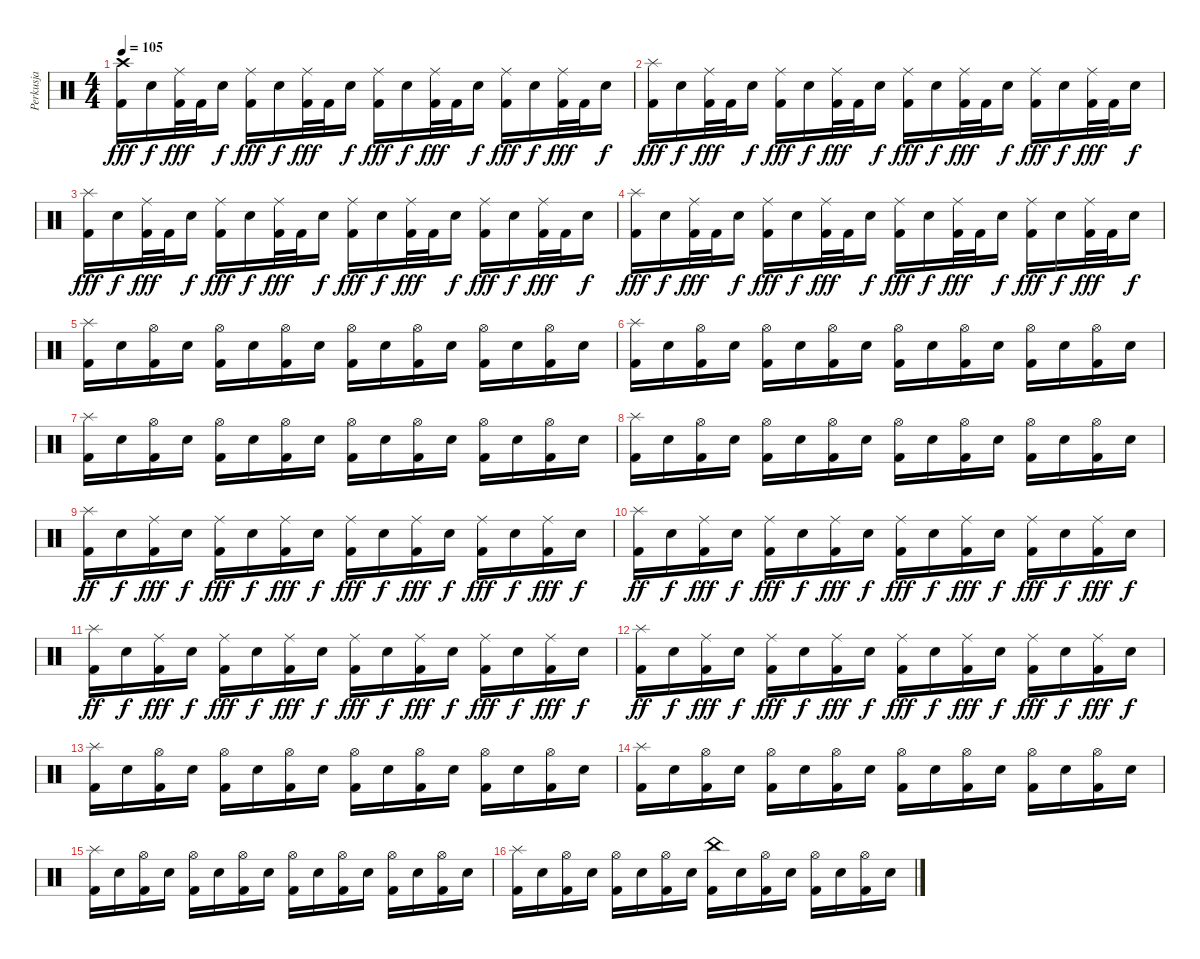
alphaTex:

\track ("Perkusja" "Perkusja") {instrument percussion}
\staff {score}
\articulation defaults
\ts (4 4)
\tempo 105
\clef neutral
\ks c
("Crash high (hit)" "Kick (hit) 2").16{dy fff} "Snare (hit) 2".16{dy f} ("Ride (middle)" "Kick (hit) 2").32{dy fff} "Kick (hit) 2".32 "Snare (hit) 2".16{dy f} ("Ride (middle)" "Kick (hit) 2").16{dy fff} "Snare (hit) 2".16{dy f} ("Ride (middle)" "Kick (hit) 2").32{dy fff} "Kick (hit) 2".32 "Snare (hit) 2".16{dy f} ("Ride (middle)" "Kick (hit) 2").16{dy fff} "Snare (hit) 2".16{dy f} ("Ride (middle)" "Kick (hit) 2").32{dy fff} "Kick (hit) 2".32 "Snare (hit) 2".16{dy f} ("Ride (middle)" "Kick (hit) 2").16{dy fff} "Snare (hit) 2".16{dy f} ("Ride (middle)" "Kick (hit) 2").32{dy fff} "Kick (hit) 2".32 "Snare (hit) 2".16{dy f} |
("Splash (hit)" "Kick (hit) 2").16{dy fff} "Snare (hit) 2".16{dy f} ("Ride (middle)" "Kick (hit) 2").32{dy fff} "Kick (hit) 2".32 "Snare (hit) 2".16{dy f} ("Ride (middle)" "Kick (hit) 2").16{dy fff} "Snare (hit) 2".16{dy f} ("Ride (middle)" "Kick (hit) 2").32{dy fff} "Kick (hit) 2".32 "Snare (hit) 2".16{dy f} ("Ride (middle)" "Kick (hit) 2").16{dy fff} "Snare (hit) 2".16{dy f} ("Ride (middle)" "Kick (hit) 2").32{dy fff} "Kick (hit) 2".32 "Snare (hit) 2".16{dy f} ("Ride (middle)" "Kick (hit) 2").16{dy fff} "Snare (hit) 2".16{dy f} ("Ride (middle)" "Kick (hit) 2").32{dy fff} "Kick (hit) 2".32 "Snare (hit) 2".16{dy f} |
("Splash (hit)" "Kick (hit) 2").16{dy fff} "Snare (hit) 2".16{dy f} ("Ride (middle)" "Kick (hit) 2").32{dy fff} "Kick (hit) 2".32 "Snare (hit) 2".16{dy f} ("Ride (middle)" "Kick (hit) 2").16{dy fff} "Snare (hit) 2".16{dy f} ("Ride (middle)" "Kick (hit) 2").32{dy fff} "Kick (hit) 2".32 "Snare (hit) 2".16{dy f} ("Ride (middle)" "Kick (hit) 2").16{dy fff} "Snare (hit) 2".16{dy f} ("Ride (middle)" "Kick (hit) 2").32{dy fff} "Kick (hit) 2".32 "Snare (hit) 2".16{dy f} ("Ride (middle)" "Kick (hit) 2").16{dy fff} "Snare (hit) 2".16{dy f} ("Ride (middle)" "Kick (hit) 2").32{dy fff} "Kick (hit) 2".32 "Snare (hit) 2".16{dy f} |
("Splash (hit)" "Kick (hit) 2").16{dy fff} "Snare (hit) 2".16{dy f} ("Ride (middle)" "Kick (hit) 2").32{dy fff} "Kick (hit) 2".32 "Snare (hit) 2".16{dy f} ("Ride (middle)" "Kick (hit) 2").16{dy fff} "Snare (hit) 2".16{dy f} ("Ride (middle)" "Kick (hit) 2").32{dy fff} "Kick (hit) 2".32 "Snare (hit) 2".16{dy f} ("Ride (middle)" "Kick (hit) 2").16{dy fff} "Snare (hit) 2".16{dy f} ("Ride (middle)" "Kick (hit) 2").32{dy fff} "Kick (hit) 2".32 "Snare (hit) 2".16{dy f} ("Ride (middle)" "Kick (hit) 2").16{dy fff} "Snare (hit) 2".16{dy f} ("Ride (middle)" "Kick (hit) 2").32{dy fff} "Kick (hit) 2".32 "Snare (hit) 2".16{dy f} |
("Splash (hit)" "Kick (hit) 2").16 "Snare (hit) 2".16 ("Hi-Hat (open)" "Kick (hit) 2").16 "Snare (hit) 2".16 ("Hi-Hat (open)" "Kick (hit) 2").16 "Snare (hit) 2".16 ("Hi-Hat (open)" "Kick (hit) 2").16 "Snare (hit) 2".16 ("Hi-Hat (open)" "Kick (hit) 2").16 "Snare (hit) 2".16 ("Hi-Hat (open)" "Kick (hit) 2").16 "Snare (hit) 2".16 ("Hi-Hat (open)" "Kick (hit) 2").16 "Snare (hit) 2".16 ("Hi-Hat (open)" "Kick (hit) 2").16 "Snare (hit) 2".16 |
("Splash (hit)" "Kick (hit) 2").16 "Snare (hit) 2".16 ("Hi-Hat (open)" "Kick (hit) 2").16 "Snare (hit) 2".16 ("Hi-Hat (open)" "Kick (hit) 2").16 "Snare (hit) 2".16 ("Hi-Hat (open)" "Kick (hit) 2").16 "Snare (hit) 2".16 ("Hi-Hat (open)" "Kick (hit) 2").16 "Snare (hit) 2".16 ("Hi-Hat (open)" "Kick (hit) 2").16 "Snare (hit) 2".16 ("Hi-Hat (open)" "Kick (hit) 2").16 "Snare (hit) 2".16 ("Hi-Hat (open)" "Kick (hit) 2").16 "Snare (hit) 2".16 |
("Splash (hit)" "Kick (hit) 2").16 "Snare (hit) 2".16 ("Hi-Hat (open)" "Kick (hit) 2").16 "Snare (hit) 2".16 ("Hi-Hat (open)" "Kick (hit) 2").16 "Snare (hit) 2".16 ("Hi-Hat (open)" "Kick (hit) 2").16 "Snare (hit) 2".16 ("Hi-Hat (open)" "Kick (hit) 2").16 "Snare (hit) 2".16 ("Hi-Hat (open)" "Kick (hit) 2").16 "Snare (hit) 2".16 ("Hi-Hat (open)" "Kick (hit) 2").16 "Snare (hit) 2".16 ("Hi-Hat (open)" "Kick (hit) 2").16 "Snare (hit) 2".16 |
("Splash (hit)" "Kick (hit) 2").16 "Snare (hit) 2".16 ("Hi-Hat (open)" "Kick (hit) 2").16 "Snare (hit) 2".16 ("Hi-Hat (open)" "Kick (hit) 2").16 "Snare (hit) 2".16 ("Hi-Hat (open)" "Kick (hit) 2").16 "Snare (hit) 2".16 ("Hi-Hat (open)" "Kick (hit) 2").16 "Snare (hit) 2".16 ("Hi-Hat (open)" "Kick (hit) 2").16 "Snare (hit) 2".16 ("Hi-Hat (open)" "Kick (hit) 2").16 "Snare (hit) 2".16 ("Hi-Hat (open)" "Kick (hit) 2").16 "Snare (hit) 2".16 |
("Splash (hit)" "Kick (hit) 2").16{dy ff} "Snare (hit) 2".16{dy f} ("Ride (middle)" "Kick (hit) 2").16{dy fff} "Snare (hit) 2".16{dy f} ("Ride (middle)" "Kick (hit) 2").16{dy fff} "Snare (hit) 2".16{dy f} ("Ride (middle)" "Kick (hit) 2").16{dy fff} "Snare (hit) 2".16{dy f} ("Ride (middle)" "Kick (hit) 2").16{dy fff} "Snare (hit) 2".16{dy f} ("Ride (middle)" "Kick (hit) 2").16{dy fff} "Snare (hit) 2".16{dy f} ("Ride (middle)" "Kick (hit) 2").16{dy fff} "Snare (hit) 2".16{dy f} ("Ride (middle)" "Kick (hit) 2").16{dy fff} "Snare (hit) 2".16{dy f} |
("Splash (hit)" "Kick (hit) 2").16{dy ff} "Snare (hit) 2".16{dy f} ("Ride (middle)" "Kick (hit) 2").16{dy fff} "Snare (hit) 2".16{dy f} ("Ride (middle)" "Kick (hit) 2").16{dy fff} "Snare (hit) 2".16{dy f} ("Ride (middle)" "Kick (hit) 2").16{dy fff} "Snare (hit) 2".16{dy f} ("Ride (middle)" "Kick (hit) 2").16{dy fff} "Snare (hit) 2".16{dy f} ("Ride (middle)" "Kick (hit) 2").16{dy fff} "Snare (hit) 2".16{dy f} ("Ride (middle)" "Kick (hit) 2").16{dy fff} "Snare (hit) 2".16{dy f} ("Ride (middle)" "Kick (hit) 2").16{dy fff} "Snare (hit) 2".16{dy f} |
("Splash (hit)" "Kick (hit) 2").16{dy ff} "Snare (hit) 2".16{dy f} ("Ride (middle)" "Kick (hit) 2").16{dy fff} "Snare (hit) 2".16{dy f} ("Ride (middle)" "Kick (hit) 2").16{dy fff} "Snare (hit) 2".16{dy f} ("Ride (middle)" "Kick (hit) 2").16{dy fff} "Snare (hit) 2".16{dy f} ("Ride (middle)" "Kick (hit) 2").16{dy fff} "Snare (hit) 2".16{dy f} ("Ride (middle)" "Kick (hit) 2").16{dy fff} "Snare (hit) 2".16{dy f} ("Ride (middle)" "Kick (hit) 2").16{dy fff} "Snare (hit) 2".16{dy f} ("Ride (middle)" "Kick (hit) 2").16{dy fff} "Snare (hit) 2".16{dy f} |
("Splash (hit)" "Kick (hit) 2").16{dy ff} "Snare (hit) 2".16{dy f} ("Ride (middle)" "Kick (hit) 2").16{dy fff} "Snare (hit) 2".16{dy f} ("Ride (middle)" "Kick (hit) 2").16{dy fff} "Snare (hit) 2".16{dy f} ("Ride (middle)" "Kick (hit) 2").16{dy fff} "Snare (hit) 2".16{dy f} ("Ride (middle)" "Kick (hit) 2").16{dy fff} "Snare (hit) 2".16{dy f} ("Ride (middle)" "Kick (hit) 2").16{dy fff} "Snare (hit) 2".16{dy f} ("Ride (middle)" "Kick (hit) 2").16{dy fff} "Snare (hit) 2".16{dy f} ("Ride (middle)" "Kick (hit) 2").16{dy fff} "Snare (hit) 2".16{dy f} |
("Splash (hit)" "Kick (hit) 2").16 "Snare (hit) 2".16 ("Hi-Hat (open)" "Kick (hit) 2").16 "Snare (hit) 2".16 ("Hi-Hat (open)" "Kick (hit) 2").16 "Snare (hit) 2".16 ("Hi-Hat (open)" "Kick (hit) 2").16 "Snare (hit) 2".16 ("Hi-Hat (open)" "Kick (hit) 2").16 "Snare (hit) 2".16 ("Hi-Hat (open)" "Kick (hit) 2").16 "Snare (hit) 2".16 ("Hi-Hat (open)" "Kick (hit) 2").16 "Snare (hit) 2".16 ("Hi-Hat (open)" "Kick (hit) 2").16 "Snare (hit) 2".16 |
("Splash (hit)" "Kick (hit) 2").16 "Snare (hit) 2".16 ("Hi-Hat (open)" "Kick (hit) 2").16 "Snare (hit) 2".16 ("Hi-Hat (open)" "Kick (hit) 2").16 "Snare (hit) 2".16 ("Hi-Hat (open)" "Kick (hit) 2").16 "Snare (hit) 2".16 ("Hi-Hat (open)" "Kick (hit) 2").16 "Snare (hit) 2".16 ("Hi-Hat (open)" "Kick (hit) 2").16 "Snare (hit) 2".16 ("Hi-Hat (open)" "Kick (hit) 2").16 "Snare (hit) 2".16 ("Hi-Hat (open)" "Kick (hit) 2").16 "Snare (hit) 2".16 |
("Splash (hit)" "Kick (hit) 2").16 "Snare (hit) 2".16 ("Hi-Hat (open)" "Kick (hit) 2").16 "Snare (hit) 2".16 ("Hi-Hat (open)" "Kick (hit) 2").16 "Snare (hit) 2".16 ("Hi-Hat (open)" "Kick (hit) 2").16 "Snare (hit) 2".16 ("Hi-Hat (open)" "Kick (hit) 2").16 "Snare (hit) 2".16 ("Hi-Hat (open)" "Kick (hit) 2").16 "Snare (hit) 2".16 ("Hi-Hat (open)" "Kick (hit) 2").16 "Snare (hit) 2".16 ("Hi-Hat (open)" "Kick (hit) 2").16 "Snare (hit) 2".16 |
("Splash (hit)" "Kick (hit) 2").16 "Snare (hit) 2".16 ("Hi-Hat (open)" "Kick (hit) 2").16 "Snare (hit) 2".16 ("Hi-Hat (open)" "Kick (hit) 2").16 "Snare (hit) 2".16 ("Hi-Hat (open)" "Kick (hit) 2").16 "Snare (hit) 2".16 ("China (hit)" "Kick (hit) 2").16 "Snare (hit) 2".16 ("Hi-Hat (open)" "Kick (hit) 2").16 "Snare (hit) 2".16 ("Hi-Hat (open)" "Kick (hit) 2").16 "Snare (hit) 2".16 ("Hi-Hat (open)" "Kick (hit) 2").16 "Snare (hit) 2".16
